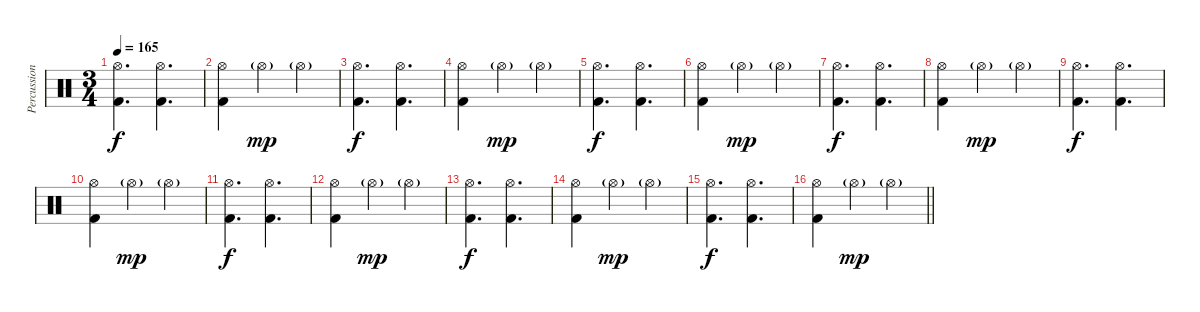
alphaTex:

\track ("Percussion" "Percussion") {instrument percussion}
\staff {score}
\articulation defaults
\ts (3 4)
\tempo 165
\clef neutral
\ks c
("Hi-Hat (open)" "Kick (hit) 2").4{d dy f} ("Hi-Hat (open)" "Kick (hit) 2").4{d} |
("Hi-Hat (open)" "Kick (hit) 2").4 "Hi-Hat (open)"{g}.4{dy mp} "Hi-Hat (open)"{g}.4 |
("Hi-Hat (open)" "Kick (hit) 2").4{d dy f} ("Hi-Hat (open)" "Kick (hit) 2").4{d} |
("Hi-Hat (open)" "Kick (hit) 2").4 "Hi-Hat (open)"{g}.4{dy mp} "Hi-Hat (open)"{g}.4 |
("Hi-Hat (open)" "Kick (hit) 2").4{d dy f} ("Hi-Hat (open)" "Kick (hit) 2").4{d} |
("Hi-Hat (open)" "Kick (hit) 2").4 "Hi-Hat (open)"{g}.4{dy mp} "Hi-Hat (open)"{g}.4 |
("Hi-Hat (open)" "Kick (hit) 2").4{d dy f} ("Hi-Hat (open)" "Kick (hit) 2").4{d} |
("Hi-Hat (open)" "Kick (hit) 2").4 "Hi-Hat (open)"{g}.4{dy mp} "Hi-Hat (open)"{g}.4 |
("Hi-Hat (open)" "Kick (hit) 2").4{d dy f} ("Hi-Hat (open)" "Kick (hit) 2").4{d} |
("Hi-Hat (open)" "Kick (hit) 2").4 "Hi-Hat (open)"{g}.4{dy mp} "Hi-Hat (open)"{g}.4 |
("Hi-Hat (open)" "Kick (hit) 2").4{d dy f} ("Hi-Hat (open)" "Kick (hit) 2").4{d} |
("Hi-Hat (open)" "Kick (hit) 2").4 "Hi-Hat (open)"{g}.4{dy mp} "Hi-Hat (open)"{g}.4 |
("Hi-Hat (open)" "Kick (hit) 2").4{d dy f} ("Hi-Hat (open)" "Kick (hit) 2").4{d} |
("Hi-Hat (open)" "Kick (hit) 2").4 "Hi-Hat (open)"{g}.4{dy mp} "Hi-Hat (open)"{g}.4 |
("Hi-Hat (open)" "Kick (hit) 2").4{d dy f} ("Hi-Hat (open)" "Kick (hit) 2").4{d} |
\barLineRight lightlight
("Hi-Hat (open)" "Kick (hit) 2").4 "Hi-Hat (open)"{g}.4{dy mp} "Hi-Hat (open)"{g}.4
